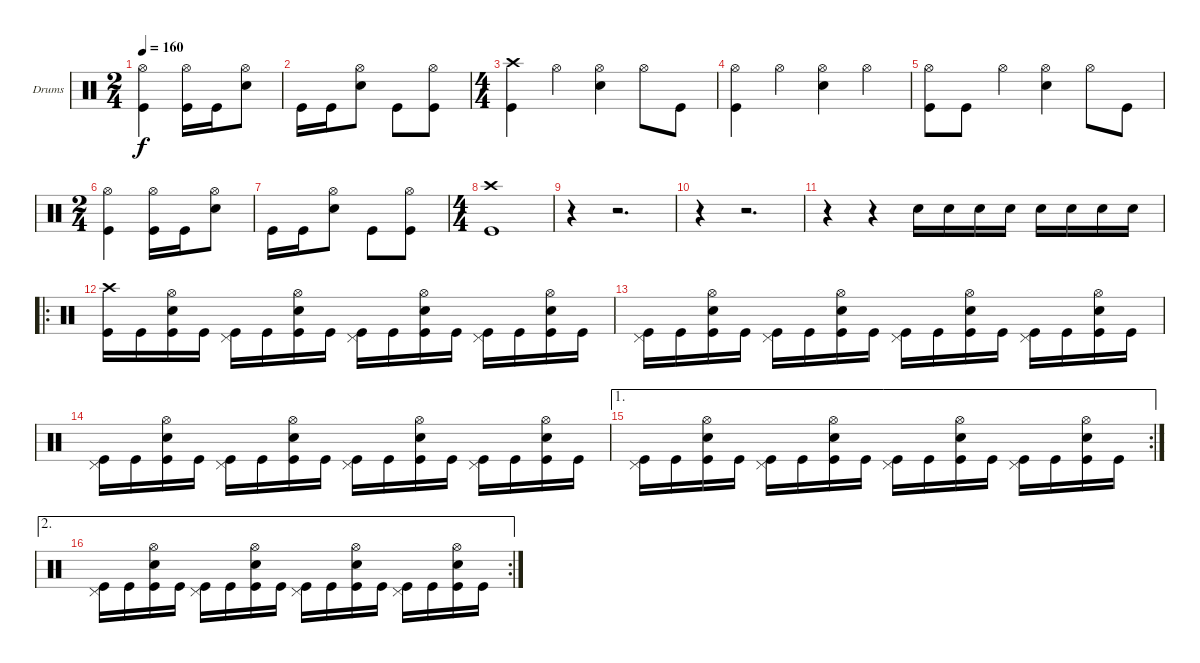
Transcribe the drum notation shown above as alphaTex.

\bracketExtendMode groupsimilarinstruments
\firstSystemTrackNameOrientation horizontal
\otherSystemsTrackNameOrientation horizontal
\track ("Drumkit" "Drums") {instrument percussion}
\staff {score}
\articulation defaults
\ts (2 4)
\beaming (8 2 2)
\tempo 160
\clef neutral
\ks c
("Hi-Hat (open)" "Kick (hit)").4{dy f} ("Hi-Hat (open)" "Kick (hit)").16 "Kick (hit)".16 ("Hi-Hat (open)" "Snare (hit) 2").8 |
"Kick (hit)".16 "Kick (hit)".16 ("Hi-Hat (open)" "Snare (hit) 2").8 "Kick (hit)".8 ("Hi-Hat (open)" "Kick (hit)").8 |
\ts (4 4)
\beaming (8 2 2 2 2)
("Crash high (hit)" "Kick (hit)").4 "Hi-Hat (open)".4 ("Hi-Hat (open)" "Snare (hit) 2").4 "Hi-Hat (open)".8 "Kick (hit)".8 |
("Hi-Hat (open)" "Kick (hit)").4 "Hi-Hat (open)".4 ("Hi-Hat (open)" "Snare (hit) 2").4 "Hi-Hat (open)".4 |
("Hi-Hat (open)" "Kick (hit)").8 "Kick (hit)".8 "Hi-Hat (open)".4 ("Hi-Hat (open)" "Snare (hit) 2").4 "Hi-Hat (open)".8 "Kick (hit)".8 |
\ts (2 4)
\beaming (8 2 2)
("Hi-Hat (open)" "Kick (hit)").4 ("Hi-Hat (open)" "Kick (hit)").16 "Kick (hit)".16 ("Hi-Hat (open)" "Snare (hit) 2").8 |
"Kick (hit)".16 "Kick (hit)".16 ("Hi-Hat (open)" "Snare (hit) 2").8 "Kick (hit)".8 ("Hi-Hat (open)" "Kick (hit)").8 |
\ts (4 4)
\beaming (8 2 2 2 2)
("Crash high (hit)" "Kick (hit)").1 |
r.4 r.2{d} |
r.4 r.2{d} |
r.4 r.4 "Snare (hit) 2".16 "Snare (hit) 2".16 "Snare (hit) 2".16 "Snare (hit) 2".16 "Snare (hit) 2".16 "Snare (hit) 2".16 "Snare (hit) 2".16 "Snare (hit) 2".16 |
\ro
("Crash high (hit)" "Kick (hit)").16 "Kick (hit)".16 ("Hi-Hat (open)" "Snare (hit) 2" "Kick (hit)").16 "Kick (hit)".16 ("Pedal Hi-Hat (hit)" "Kick (hit)").16 "Kick (hit)".16 ("Hi-Hat (open)" "Snare (hit) 2" "Kick (hit)").16 "Kick (hit)".16 ("Pedal Hi-Hat (hit)" "Kick (hit)").16 "Kick (hit)".16 ("Hi-Hat (open)" "Snare (hit) 2" "Kick (hit)").16 "Kick (hit)".16 ("Pedal Hi-Hat (hit)" "Kick (hit)").16 "Kick (hit)".16 ("Hi-Hat (open)" "Snare (hit) 2" "Kick (hit)").16 "Kick (hit)".16 |
("Pedal Hi-Hat (hit)" "Kick (hit)").16 "Kick (hit)".16 ("Hi-Hat (open)" "Snare (hit) 2" "Kick (hit)").16 "Kick (hit)".16 ("Pedal Hi-Hat (hit)" "Kick (hit)").16 "Kick (hit)".16 ("Hi-Hat (open)" "Snare (hit) 2" "Kick (hit)").16 "Kick (hit)".16 ("Pedal Hi-Hat (hit)" "Kick (hit)").16 "Kick (hit)".16 ("Hi-Hat (open)" "Snare (hit) 2" "Kick (hit)").16 "Kick (hit)".16 ("Pedal Hi-Hat (hit)" "Kick (hit)").16 "Kick (hit)".16 ("Hi-Hat (open)" "Snare (hit) 2" "Kick (hit)").16 "Kick (hit)".16 |
("Pedal Hi-Hat (hit)" "Kick (hit)").16 "Kick (hit)".16 ("Hi-Hat (open)" "Snare (hit) 2" "Kick (hit)").16 "Kick (hit)".16 ("Pedal Hi-Hat (hit)" "Kick (hit)").16 "Kick (hit)".16 ("Hi-Hat (open)" "Snare (hit) 2" "Kick (hit)").16 "Kick (hit)".16 ("Pedal Hi-Hat (hit)" "Kick (hit)").16 "Kick (hit)".16 ("Hi-Hat (open)" "Snare (hit) 2" "Kick (hit)").16 "Kick (hit)".16 ("Pedal Hi-Hat (hit)" "Kick (hit)").16 "Kick (hit)".16 ("Hi-Hat (open)" "Snare (hit) 2" "Kick (hit)").16 "Kick (hit)".16 |
\ae 1
\rc 2
("Pedal Hi-Hat (hit)" "Kick (hit)").16 "Kick (hit)".16 ("Hi-Hat (open)" "Snare (hit) 2" "Kick (hit)").16 "Kick (hit)".16 ("Pedal Hi-Hat (hit)" "Kick (hit)").16 "Kick (hit)".16 ("Hi-Hat (open)" "Snare (hit) 2" "Kick (hit)").16 "Kick (hit)".16 ("Pedal Hi-Hat (hit)" "Kick (hit)").16 "Kick (hit)".16 ("Hi-Hat (open)" "Snare (hit) 2" "Kick (hit)").16 "Kick (hit)".16 ("Pedal Hi-Hat (hit)" "Kick (hit)").16 "Kick (hit)".16 ("Hi-Hat (open)" "Snare (hit) 2" "Kick (hit)").16 "Kick (hit)".16 |
\ae 2
\rc 2
("Pedal Hi-Hat (hit)" "Kick (hit)").16 "Kick (hit)".16 ("Hi-Hat (open)" "Snare (hit) 2" "Kick (hit)").16 "Kick (hit)".16 ("Pedal Hi-Hat (hit)" "Kick (hit)").16 "Kick (hit)".16 ("Hi-Hat (open)" "Snare (hit) 2" "Kick (hit)").16 "Kick (hit)".16 ("Pedal Hi-Hat (hit)" "Kick (hit)").16 "Kick (hit)".16 ("Hi-Hat (open)" "Snare (hit) 2" "Kick (hit)").16 "Kick (hit)".16 ("Pedal Hi-Hat (hit)" "Kick (hit)").16 "Kick (hit)".16 ("Hi-Hat (open)" "Snare (hit) 2" "Kick (hit)").16 "Kick (hit)".16
